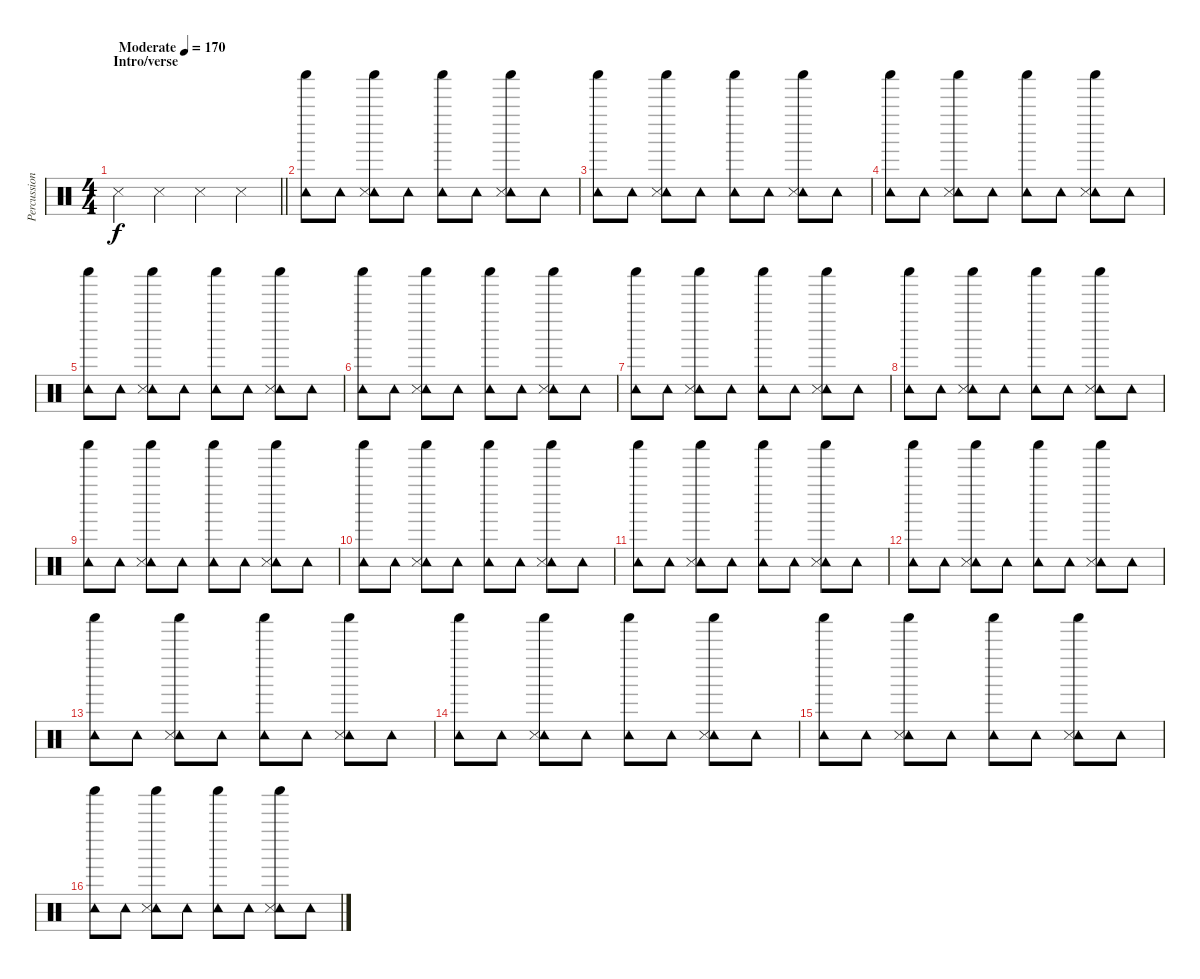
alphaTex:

\track ("Percussion" "Percussion") {instrument percussion}
\staff {score}
\articulation defaults
\ts (4 4)
\section ("" "Intro/verse")
\tempo (170 "Moderate")
\clef neutral
\barLineRight lightlight
\ks c "Snare (side stick) 3".4{dy f} "Snare (side stick) 3".4 "Snare (side stick) 3".4 "Snare (side stick) 3".4
|
("Shaker (hit)" "Tambourine (hit)").8 "Tambourine (hit)".8 ("Shaker (hit)" "Tambourine (hit)" "Snare (side stick) 3").8 "Tambourine (hit)".8 ("Shaker (hit)" "Tambourine (hit)").8 "Tambourine (hit)".8 ("Shaker (hit)" "Tambourine (hit)" "Snare (side stick) 3").8 "Tambourine (hit)".8 |
("Shaker (hit)" "Tambourine (hit)").8 "Tambourine (hit)".8 ("Shaker (hit)" "Tambourine (hit)" "Snare (side stick) 3").8 "Tambourine (hit)".8 ("Shaker (hit)" "Tambourine (hit)").8 "Tambourine (hit)".8 ("Shaker (hit)" "Tambourine (hit)" "Snare (side stick) 3").8 "Tambourine (hit)".8 |
("Shaker (hit)" "Tambourine (hit)").8 "Tambourine (hit)".8 ("Shaker (hit)" "Tambourine (hit)" "Snare (side stick) 3").8 "Tambourine (hit)".8 ("Shaker (hit)" "Tambourine (hit)").8 "Tambourine (hit)".8 ("Shaker (hit)" "Tambourine (hit)" "Snare (side stick) 3").8 "Tambourine (hit)".8 |
("Shaker (hit)" "Tambourine (hit)").8 "Tambourine (hit)".8 ("Shaker (hit)" "Tambourine (hit)" "Snare (side stick) 3").8 "Tambourine (hit)".8 ("Shaker (hit)" "Tambourine (hit)").8 "Tambourine (hit)".8 ("Shaker (hit)" "Tambourine (hit)" "Snare (side stick) 3").8 "Tambourine (hit)".8 |
("Shaker (hit)" "Tambourine (hit)").8 "Tambourine (hit)".8 ("Shaker (hit)" "Tambourine (hit)" "Snare (side stick) 3").8 "Tambourine (hit)".8 ("Shaker (hit)" "Tambourine (hit)").8 "Tambourine (hit)".8 ("Shaker (hit)" "Tambourine (hit)" "Snare (side stick) 3").8 "Tambourine (hit)".8 |
("Shaker (hit)" "Tambourine (hit)").8 "Tambourine (hit)".8 ("Shaker (hit)" "Tambourine (hit)" "Snare (side stick) 3").8 "Tambourine (hit)".8 ("Shaker (hit)" "Tambourine (hit)").8 "Tambourine (hit)".8 ("Shaker (hit)" "Tambourine (hit)" "Snare (side stick) 3").8 "Tambourine (hit)".8 |
("Shaker (hit)" "Tambourine (hit)").8 "Tambourine (hit)".8 ("Shaker (hit)" "Tambourine (hit)" "Snare (side stick) 3").8 "Tambourine (hit)".8 ("Shaker (hit)" "Tambourine (hit)").8 "Tambourine (hit)".8 ("Shaker (hit)" "Tambourine (hit)" "Snare (side stick) 3").8 "Tambourine (hit)".8 |
("Shaker (hit)" "Tambourine (hit)").8 "Tambourine (hit)".8 ("Shaker (hit)" "Tambourine (hit)" "Snare (side stick) 3").8 "Tambourine (hit)".8 ("Shaker (hit)" "Tambourine (hit)").8 "Tambourine (hit)".8 ("Shaker (hit)" "Tambourine (hit)" "Snare (side stick) 3").8 "Tambourine (hit)".8 |
("Shaker (hit)" "Tambourine (hit)").8 "Tambourine (hit)".8 ("Shaker (hit)" "Tambourine (hit)" "Snare (side stick) 3").8 "Tambourine (hit)".8 ("Shaker (hit)" "Tambourine (hit)").8 "Tambourine (hit)".8 ("Shaker (hit)" "Tambourine (hit)" "Snare (side stick) 3").8 "Tambourine (hit)".8 |
("Shaker (hit)" "Tambourine (hit)").8 "Tambourine (hit)".8 ("Shaker (hit)" "Tambourine (hit)" "Snare (side stick) 3").8 "Tambourine (hit)".8 ("Shaker (hit)" "Tambourine (hit)").8 "Tambourine (hit)".8 ("Shaker (hit)" "Tambourine (hit)" "Snare (side stick) 3").8 "Tambourine (hit)".8 |
("Shaker (hit)" "Tambourine (hit)").8 "Tambourine (hit)".8 ("Shaker (hit)" "Tambourine (hit)" "Snare (side stick) 3").8 "Tambourine (hit)".8 ("Shaker (hit)" "Tambourine (hit)").8 "Tambourine (hit)".8 ("Shaker (hit)" "Tambourine (hit)" "Snare (side stick) 3").8 "Tambourine (hit)".8 |
("Shaker (hit)" "Tambourine (hit)").8 "Tambourine (hit)".8 ("Shaker (hit)" "Tambourine (hit)" "Snare (side stick) 3").8 "Tambourine (hit)".8 ("Shaker (hit)" "Tambourine (hit)").8 "Tambourine (hit)".8 ("Shaker (hit)" "Tambourine (hit)" "Snare (side stick) 3").8 "Tambourine (hit)".8 |
("Shaker (hit)" "Tambourine (hit)").8 "Tambourine (hit)".8 ("Shaker (hit)" "Tambourine (hit)" "Snare (side stick) 3").8 "Tambourine (hit)".8 ("Shaker (hit)" "Tambourine (hit)").8 "Tambourine (hit)".8 ("Shaker (hit)" "Tambourine (hit)" "Snare (side stick) 3").8 "Tambourine (hit)".8 |
("Shaker (hit)" "Tambourine (hit)").8 "Tambourine (hit)".8 ("Shaker (hit)" "Tambourine (hit)" "Snare (side stick) 3").8 "Tambourine (hit)".8 ("Shaker (hit)" "Tambourine (hit)").8 "Tambourine (hit)".8 ("Shaker (hit)" "Tambourine (hit)" "Snare (side stick) 3").8 "Tambourine (hit)".8 |
("Shaker (hit)" "Tambourine (hit)").8 "Tambourine (hit)".8 ("Shaker (hit)" "Tambourine (hit)" "Snare (side stick) 3").8 "Tambourine (hit)".8 ("Shaker (hit)" "Tambourine (hit)").8 "Tambourine (hit)".8 ("Shaker (hit)" "Tambourine (hit)" "Snare (side stick) 3").8 "Tambourine (hit)".8
